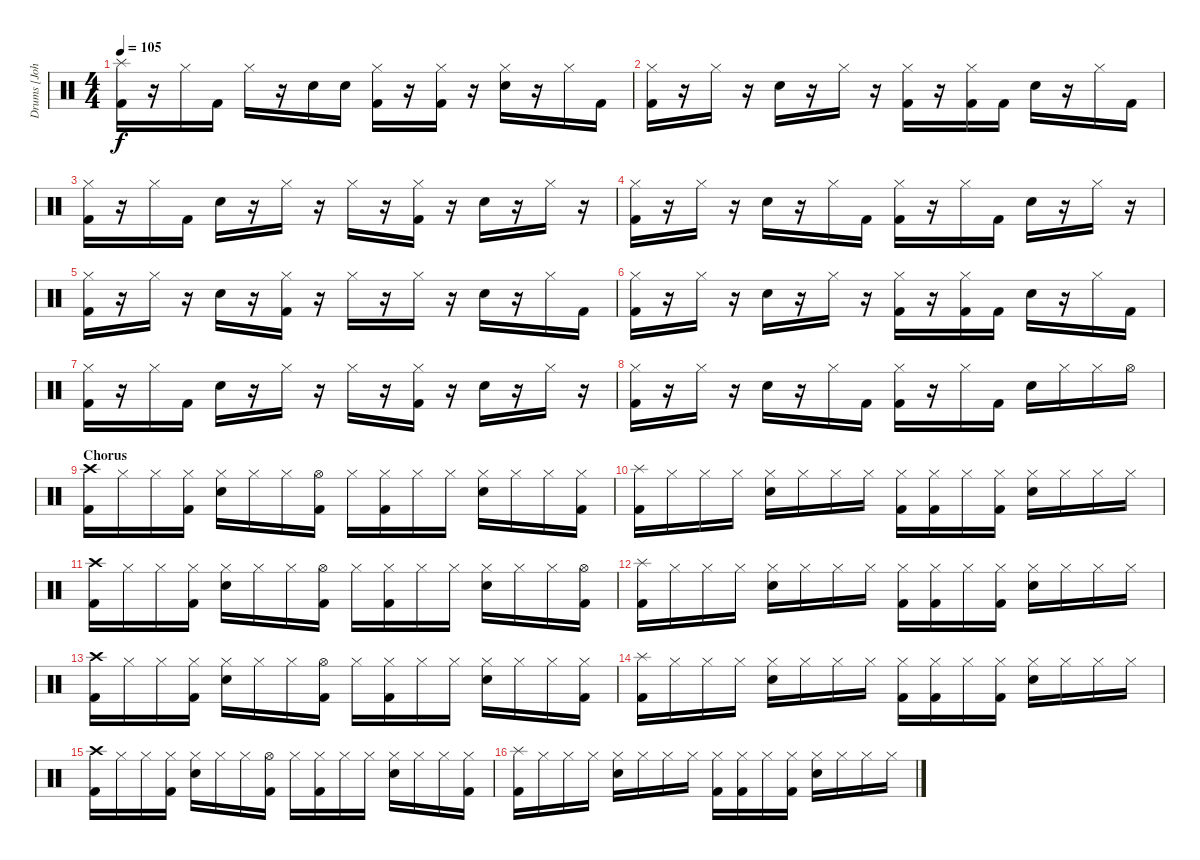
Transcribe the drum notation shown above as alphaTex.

\track ("Drums [John Otto]" "Drums [Joh") {instrument percussion}
\staff {score}
\articulation defaults
\ts (4 4)
\tempo 105
\clef neutral
\ks c
("Splash (hit)" "Kick (hit) 2").16{dy f} r.16 "Hi-Hat (closed)".16 "Kick (hit) 2".16 "Hi-Hat (closed)".16 r.16 "Electric Snare (hit)".16 "Electric Snare (hit)".16 ("Hi-Hat (closed)" "Kick (hit) 2").16 r.16 ("Hi-Hat (closed)" "Kick (hit) 2").16 r.16 ("Hi-Hat (closed)" "Electric Snare (hit)").16 r.16 "Hi-Hat (closed)".16 "Kick (hit) 2".16 |
("Hi-Hat (closed)" "Kick (hit) 2").16 r.16 "Hi-Hat (closed)".16 r.16 "Electric Snare (hit)".16 r.16 "Hi-Hat (closed)".16 r.16 ("Hi-Hat (closed)" "Kick (hit) 2").16 r.16 ("Hi-Hat (closed)" "Kick (hit) 2").16 "Kick (hit) 2".16 "Electric Snare (hit)".16 r.16 "Hi-Hat (closed)".16 "Kick (hit) 2".16 |
("Hi-Hat (closed)" "Kick (hit) 2").16 r.16 "Hi-Hat (closed)".16 "Kick (hit) 2".16 "Electric Snare (hit)".16 r.16 "Hi-Hat (closed)".16 r.16 "Hi-Hat (closed)".16 r.16 ("Hi-Hat (closed)" "Kick (hit) 2").16 r.16 "Electric Snare (hit)".16 r.16 "Hi-Hat (closed)".16 r.16 |
("Hi-Hat (closed)" "Kick (hit) 2").16 r.16 "Hi-Hat (closed)".16 r.16 "Electric Snare (hit)".16 r.16 "Hi-Hat (closed)".16 "Kick (hit) 2".16 ("Hi-Hat (closed)" "Kick (hit) 2").16 r.16 "Hi-Hat (closed)".16 "Kick (hit) 2".16 "Electric Snare (hit)".16 r.16 "Hi-Hat (closed)".16 r.16 |
("Hi-Hat (closed)" "Kick (hit) 2").16 r.16 "Hi-Hat (closed)".16 r.16 "Electric Snare (hit)".16 r.16 ("Hi-Hat (closed)" "Kick (hit) 2").16 r.16 "Hi-Hat (closed)".16 r.16 "Hi-Hat (closed)".16 r.16 "Electric Snare (hit)".16 r.16 "Hi-Hat (closed)".16 "Kick (hit) 2".16 |
("Hi-Hat (closed)" "Kick (hit) 2").16 r.16 "Hi-Hat (closed)".16 r.16 "Electric Snare (hit)".16 r.16 "Hi-Hat (closed)".16 r.16 ("Hi-Hat (closed)" "Kick (hit) 2").16 r.16 ("Hi-Hat (closed)" "Kick (hit) 2").16 "Kick (hit) 2".16 "Electric Snare (hit)".16 r.16 "Hi-Hat (closed)".16 "Kick (hit) 2".16 |
("Hi-Hat (closed)" "Kick (hit) 2").16 r.16 "Hi-Hat (closed)".16 "Kick (hit) 2".16 "Electric Snare (hit)".16 r.16 "Hi-Hat (closed)".16 r.16 "Hi-Hat (closed)".16 r.16 ("Hi-Hat (closed)" "Kick (hit) 2").16 r.16 "Electric Snare (hit)".16 r.16 "Hi-Hat (closed)".16 r.16 |
("Hi-Hat (closed)" "Kick (hit) 2").16 r.16 "Hi-Hat (closed)".16 r.16 "Electric Snare (hit)".16 r.16 "Hi-Hat (closed)".16 "Kick (hit) 2".16 ("Hi-Hat (closed)" "Kick (hit) 2").16 r.16 "Hi-Hat (closed)".16 "Kick (hit) 2".16 "Electric Snare (hit)".16 "Hi-Hat (closed)".16 "Hi-Hat (closed)".16 "Hi-Hat (open)".16 |
\section ("" "Chorus")
("Crash high (hit)" "Kick (hit) 2").16 "Hi-Hat (closed)".16 "Hi-Hat (closed)".16 ("Hi-Hat (closed)" "Kick (hit) 2").16 ("Hi-Hat (closed)" "Electric Snare (hit)").16 "Hi-Hat (closed)".16 "Hi-Hat (closed)".16 ("Hi-Hat (open)" "Kick (hit) 2").16 "Hi-Hat (closed)".16 ("Hi-Hat (closed)" "Kick (hit) 2").16 "Hi-Hat (closed)".16 "Hi-Hat (closed)".16 ("Hi-Hat (closed)" "Electric Snare (hit)").16 "Hi-Hat (closed)".16 "Hi-Hat (closed)".16 ("Hi-Hat (closed)" "Kick (hit) 2").16 |
("Splash (hit)" "Kick (hit) 2").16 "Hi-Hat (closed)".16 "Hi-Hat (closed)".16 "Hi-Hat (closed)".16 ("Hi-Hat (closed)" "Electric Snare (hit)").16 "Hi-Hat (closed)".16 "Hi-Hat (closed)".16 "Hi-Hat (closed)".16 ("Hi-Hat (closed)" "Kick (hit) 2").16 ("Hi-Hat (closed)" "Kick (hit) 2").16 "Hi-Hat (closed)".16 ("Hi-Hat (closed)" "Kick (hit) 2").16 ("Hi-Hat (closed)" "Electric Snare (hit)").16 "Hi-Hat (closed)".16 "Hi-Hat (closed)".16 "Hi-Hat (closed)".16 |
("Crash high (hit)" "Kick (hit) 2").16 "Hi-Hat (closed)".16 "Hi-Hat (closed)".16 ("Hi-Hat (closed)" "Kick (hit) 2").16 ("Hi-Hat (closed)" "Electric Snare (hit)").16 "Hi-Hat (closed)".16 "Hi-Hat (closed)".16 ("Hi-Hat (open)" "Kick (hit) 2").16 "Hi-Hat (closed)".16 ("Hi-Hat (closed)" "Kick (hit) 2").16 "Hi-Hat (closed)".16 "Hi-Hat (closed)".16 ("Hi-Hat (closed)" "Electric Snare (hit)").16 "Hi-Hat (closed)".16 "Hi-Hat (closed)".16 ("Hi-Hat (open)" "Kick (hit) 2").16 |
("Splash (hit)" "Kick (hit) 2").16 "Hi-Hat (closed)".16 "Hi-Hat (closed)".16 "Hi-Hat (closed)".16 ("Hi-Hat (closed)" "Electric Snare (hit)").16 "Hi-Hat (closed)".16 "Hi-Hat (closed)".16 "Hi-Hat (closed)".16 ("Hi-Hat (closed)" "Kick (hit) 2").16 ("Hi-Hat (closed)" "Kick (hit) 2").16 "Hi-Hat (closed)".16 ("Hi-Hat (closed)" "Kick (hit) 2").16 ("Hi-Hat (closed)" "Electric Snare (hit)").16 "Hi-Hat (closed)".16 "Hi-Hat (closed)".16 "Hi-Hat (closed)".16 |
("Crash high (hit)" "Kick (hit) 2").16 "Hi-Hat (closed)".16 "Hi-Hat (closed)".16 ("Hi-Hat (closed)" "Kick (hit) 2").16 ("Hi-Hat (closed)" "Electric Snare (hit)").16 "Hi-Hat (closed)".16 "Hi-Hat (closed)".16 ("Hi-Hat (open)" "Kick (hit) 2").16 "Hi-Hat (closed)".16 ("Hi-Hat (closed)" "Kick (hit) 2").16 "Hi-Hat (closed)".16 "Hi-Hat (closed)".16 ("Hi-Hat (closed)" "Electric Snare (hit)").16 "Hi-Hat (closed)".16 "Hi-Hat (closed)".16 ("Hi-Hat (closed)" "Kick (hit) 2").16 |
("Splash (hit)" "Kick (hit) 2").16 "Hi-Hat (closed)".16 "Hi-Hat (closed)".16 "Hi-Hat (closed)".16 ("Hi-Hat (closed)" "Electric Snare (hit)").16 "Hi-Hat (closed)".16 "Hi-Hat (closed)".16 "Hi-Hat (closed)".16 ("Hi-Hat (closed)" "Kick (hit) 2").16 ("Hi-Hat (closed)" "Kick (hit) 2").16 "Hi-Hat (closed)".16 ("Hi-Hat (closed)" "Kick (hit) 2").16 ("Hi-Hat (closed)" "Electric Snare (hit)").16 "Hi-Hat (closed)".16 "Hi-Hat (closed)".16 "Hi-Hat (closed)".16 |
("Crash high (hit)" "Kick (hit) 2").16 "Hi-Hat (closed)".16 "Hi-Hat (closed)".16 ("Hi-Hat (closed)" "Kick (hit) 2").16 ("Hi-Hat (closed)" "Electric Snare (hit)").16 "Hi-Hat (closed)".16 "Hi-Hat (closed)".16 ("Hi-Hat (open)" "Kick (hit) 2").16 "Hi-Hat (closed)".16 ("Hi-Hat (closed)" "Kick (hit) 2").16 "Hi-Hat (closed)".16 "Hi-Hat (closed)".16 ("Hi-Hat (closed)" "Electric Snare (hit)").16 "Hi-Hat (closed)".16 "Hi-Hat (closed)".16 ("Hi-Hat (closed)" "Kick (hit) 2").16 |
("Splash (hit)" "Kick (hit) 2").16 "Hi-Hat (closed)".16 "Hi-Hat (closed)".16 "Hi-Hat (closed)".16 ("Hi-Hat (closed)" "Electric Snare (hit)").16 "Hi-Hat (closed)".16 "Hi-Hat (closed)".16 "Hi-Hat (closed)".16 ("Hi-Hat (closed)" "Kick (hit) 2").16 ("Hi-Hat (closed)" "Kick (hit) 2").16 "Hi-Hat (closed)".16 ("Hi-Hat (closed)" "Kick (hit) 2").16 ("Hi-Hat (closed)" "Electric Snare (hit)").16 "Hi-Hat (closed)".16 "Hi-Hat (closed)".16 "Hi-Hat (closed)".16
